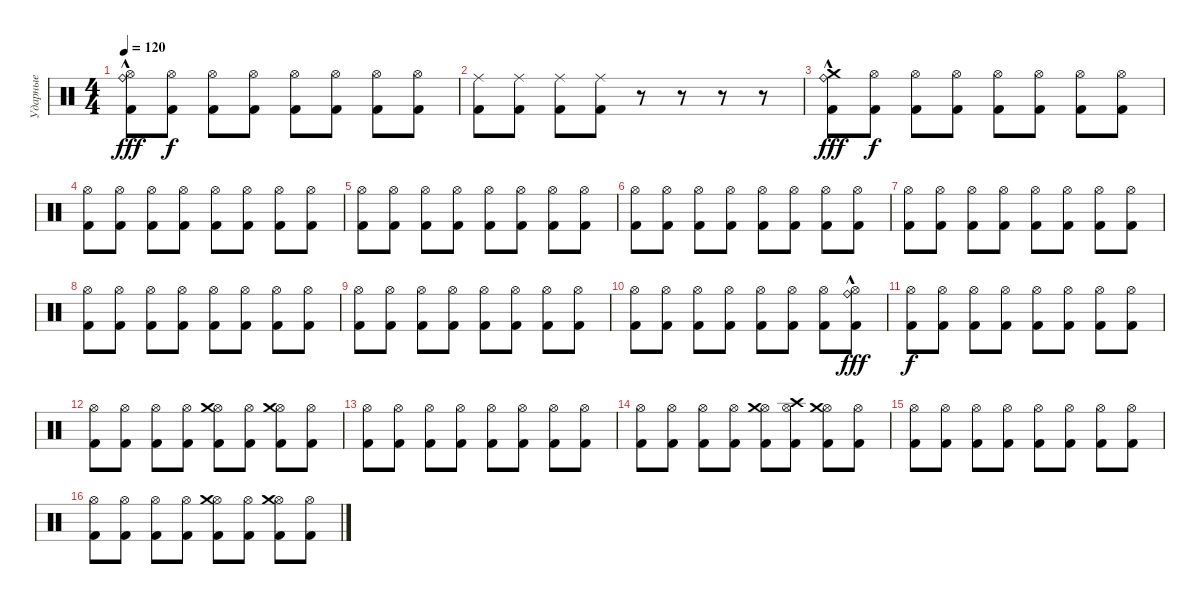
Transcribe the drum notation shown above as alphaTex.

\track ("Ударные" "Ударные") {instrument percussion}
\staff {score}
\articulation defaults
\ts (4 4)
\tempo 120
\clef neutral
\ks c
("Kick (hit) 2" "Hi-Hat (open)"{hac} "Ride (bell)").8{dy fff} ("Kick (hit) 2" "Hi-Hat (open)").8{dy f} ("Kick (hit) 2" "Hi-Hat (open)").8 ("Kick (hit) 2" "Hi-Hat (open)").8 ("Kick (hit) 2" "Hi-Hat (open)").8 ("Kick (hit) 2" "Hi-Hat (open)").8 ("Kick (hit) 2" "Hi-Hat (open)").8 ("Kick (hit) 2" "Hi-Hat (open)").8 |
("Kick (hit) 2" "Ride (middle)").8 ("Kick (hit) 2" "Ride (middle)").8 ("Kick (hit) 2" "Ride (middle)").8 ("Kick (hit) 2" "Ride (middle)").8 r.8 r.8 r.8 r.8 |
("Kick (hit) 2" "Crash medium (hit)" "Ride (bell)"{hac}).8{dy fff} ("Kick (hit) 2" "Hi-Hat (open)").8{dy f} ("Kick (hit) 2" "Hi-Hat (open)").8 ("Kick (hit) 2" "Hi-Hat (open)").8 ("Kick (hit) 2" "Hi-Hat (open)").8 ("Kick (hit) 2" "Hi-Hat (open)").8 ("Kick (hit) 2" "Hi-Hat (open)").8 ("Kick (hit) 2" "Hi-Hat (open)").8 |
("Kick (hit) 2" "Hi-Hat (open)").8 ("Kick (hit) 2" "Hi-Hat (open)").8 ("Kick (hit) 2" "Hi-Hat (open)").8 ("Kick (hit) 2" "Hi-Hat (open)").8 ("Kick (hit) 2" "Hi-Hat (open)").8 ("Kick (hit) 2" "Hi-Hat (open)").8 ("Kick (hit) 2" "Hi-Hat (open)").8 ("Kick (hit) 2" "Hi-Hat (open)").8 |
("Kick (hit) 2" "Hi-Hat (open)").8 ("Kick (hit) 2" "Hi-Hat (open)").8 ("Kick (hit) 2" "Hi-Hat (open)").8 ("Kick (hit) 2" "Hi-Hat (open)").8 ("Kick (hit) 2" "Hi-Hat (open)").8 ("Kick (hit) 2" "Hi-Hat (open)").8 ("Kick (hit) 2" "Hi-Hat (open)").8 ("Kick (hit) 2" "Hi-Hat (open)").8 |
("Kick (hit) 2" "Hi-Hat (open)").8 ("Kick (hit) 2" "Hi-Hat (open)").8 ("Kick (hit) 2" "Hi-Hat (open)").8 ("Kick (hit) 2" "Hi-Hat (open)").8 ("Kick (hit) 2" "Hi-Hat (open)").8 ("Kick (hit) 2" "Hi-Hat (open)").8 ("Kick (hit) 2" "Hi-Hat (open)").8 ("Kick (hit) 2" "Hi-Hat (open)").8 |
("Kick (hit) 2" "Hi-Hat (open)").8 ("Kick (hit) 2" "Hi-Hat (open)").8 ("Kick (hit) 2" "Hi-Hat (open)").8 ("Kick (hit) 2" "Hi-Hat (open)").8 ("Kick (hit) 2" "Hi-Hat (open)").8 ("Kick (hit) 2" "Hi-Hat (open)").8 ("Kick (hit) 2" "Hi-Hat (open)").8 ("Kick (hit) 2" "Hi-Hat (open)").8 |
("Kick (hit) 2" "Hi-Hat (open)").8 ("Kick (hit) 2" "Hi-Hat (open)").8 ("Kick (hit) 2" "Hi-Hat (open)").8 ("Kick (hit) 2" "Hi-Hat (open)").8 ("Kick (hit) 2" "Hi-Hat (open)").8 ("Kick (hit) 2" "Hi-Hat (open)").8 ("Kick (hit) 2" "Hi-Hat (open)").8 ("Kick (hit) 2" "Hi-Hat (open)").8 |
("Kick (hit) 2" "Hi-Hat (open)").8 ("Kick (hit) 2" "Hi-Hat (open)").8 ("Kick (hit) 2" "Hi-Hat (open)").8 ("Kick (hit) 2" "Hi-Hat (open)").8 ("Kick (hit) 2" "Hi-Hat (open)").8 ("Kick (hit) 2" "Hi-Hat (open)").8 ("Kick (hit) 2" "Hi-Hat (open)").8 ("Kick (hit) 2" "Hi-Hat (open)").8 |
("Kick (hit) 2" "Hi-Hat (open)").8 ("Kick (hit) 2" "Hi-Hat (open)").8 ("Kick (hit) 2" "Hi-Hat (open)").8 ("Kick (hit) 2" "Hi-Hat (open)").8 ("Kick (hit) 2" "Hi-Hat (open)").8 ("Kick (hit) 2" "Hi-Hat (open)").8 ("Kick (hit) 2" "Hi-Hat (open)").8 ("Kick (hit) 2" "Hi-Hat (open)" "Ride (bell)"{hac}).8{dy fff} |
("Kick (hit) 2" "Hi-Hat (open)").8{dy f} ("Kick (hit) 2" "Hi-Hat (open)").8 ("Kick (hit) 2" "Hi-Hat (open)").8 ("Kick (hit) 2" "Hi-Hat (open)").8 ("Kick (hit) 2" "Hi-Hat (open)").8 ("Kick (hit) 2" "Hi-Hat (open)").8 ("Kick (hit) 2" "Hi-Hat (open)").8 ("Kick (hit) 2" "Hi-Hat (open)").8 |
("Kick (hit) 2" "Hi-Hat (open)").8 ("Kick (hit) 2" "Hi-Hat (open)").8 ("Kick (hit) 2" "Hi-Hat (open)").8 ("Kick (hit) 2" "Hi-Hat (open)").8 ("Kick (hit) 2" "Hi-Hat (open)" "Crash medium (hit)").8 ("Kick (hit) 2" "Hi-Hat (open)").8 ("Kick (hit) 2" "Hi-Hat (open)" "Crash medium (hit)").8 ("Kick (hit) 2" "Hi-Hat (open)").8 |
("Kick (hit) 2" "Hi-Hat (open)").8 ("Kick (hit) 2" "Hi-Hat (open)").8 ("Kick (hit) 2" "Hi-Hat (open)").8 ("Kick (hit) 2" "Hi-Hat (open)").8 ("Kick (hit) 2" "Hi-Hat (open)").8 ("Kick (hit) 2" "Hi-Hat (open)").8 ("Kick (hit) 2" "Hi-Hat (open)").8 ("Kick (hit) 2" "Hi-Hat (open)").8 |
("Kick (hit) 2" "Hi-Hat (open)").8 ("Kick (hit) 2" "Hi-Hat (open)").8 ("Kick (hit) 2" "Hi-Hat (open)").8 ("Kick (hit) 2" "Hi-Hat (open)").8 ("Kick (hit) 2" "Hi-Hat (open)" "Crash medium (hit)").8 ("Kick (hit) 2" "Hi-Hat (open)" "Crash high (hit)").8 ("Kick (hit) 2" "Hi-Hat (open)" "Crash medium (hit)").8 ("Kick (hit) 2" "Hi-Hat (open)").8 |
("Kick (hit) 2" "Hi-Hat (open)").8 ("Kick (hit) 2" "Hi-Hat (open)").8 ("Kick (hit) 2" "Hi-Hat (open)").8 ("Kick (hit) 2" "Hi-Hat (open)").8 ("Kick (hit) 2" "Hi-Hat (open)").8 ("Kick (hit) 2" "Hi-Hat (open)").8 ("Kick (hit) 2" "Hi-Hat (open)").8 ("Kick (hit) 2" "Hi-Hat (open)").8 |
("Kick (hit) 2" "Hi-Hat (open)").8 ("Kick (hit) 2" "Hi-Hat (open)").8 ("Kick (hit) 2" "Hi-Hat (open)").8 ("Kick (hit) 2" "Hi-Hat (open)").8 ("Kick (hit) 2" "Hi-Hat (open)" "Crash medium (hit)").8 ("Kick (hit) 2" "Hi-Hat (open)").8 ("Kick (hit) 2" "Hi-Hat (open)" "Crash medium (hit)").8 ("Kick (hit) 2" "Hi-Hat (open)").8
